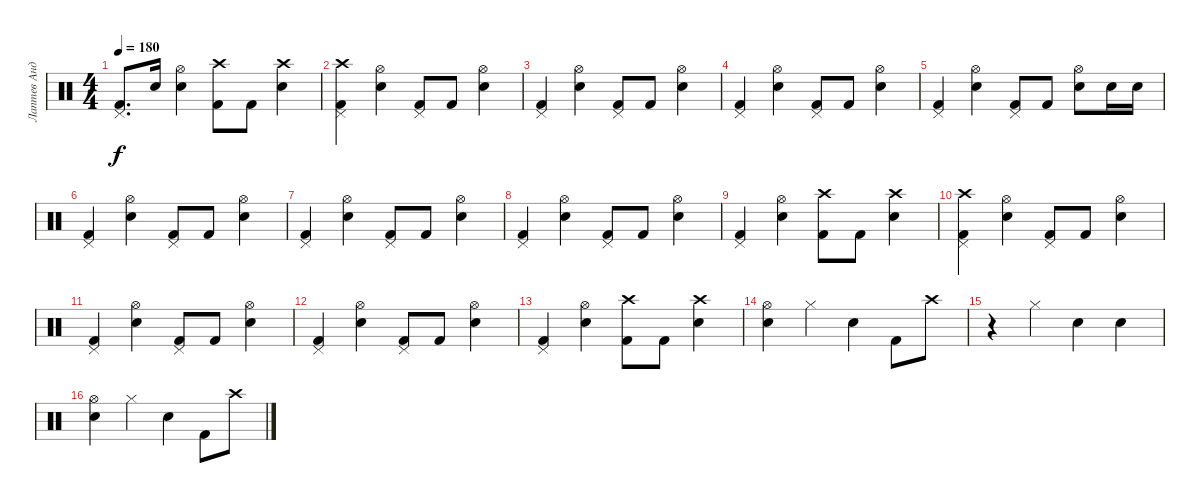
\track ("Лаптев Андрей" "Лаптев Анд") {instrument percussion}
\staff {score}
\articulation defaults
\ts (4 4)
\tempo 180
\clef neutral
\ks c
("Kick (hit) 2" "Pedal Hi-Hat (hit)").8{d dy f} "Snare (hit) 2".16 ("Snare (hit) 2" "Hi-Hat (open)").4 ("Kick (hit) 2" "Crash high (hit)").8 "Kick (hit) 2".8 ("Snare (hit) 2" "Crash high (hit)").4 |
("Kick (hit) 2" "Crash high (hit)" "Pedal Hi-Hat (hit)").4 ("Snare (hit) 2" "Hi-Hat (open)").4 ("Kick (hit) 2" "Pedal Hi-Hat (hit)").8 "Kick (hit) 2".8 ("Snare (hit) 2" "Hi-Hat (open)").4 |
("Kick (hit) 2" "Pedal Hi-Hat (hit)").4 ("Snare (hit) 2" "Hi-Hat (open)").4 ("Kick (hit) 2" "Pedal Hi-Hat (hit)").8 "Kick (hit) 2".8 ("Snare (hit) 2" "Hi-Hat (open)").4 |
("Kick (hit) 2" "Pedal Hi-Hat (hit)").4 ("Snare (hit) 2" "Hi-Hat (open)").4 ("Kick (hit) 2" "Pedal Hi-Hat (hit)").8 "Kick (hit) 2".8 ("Snare (hit) 2" "Hi-Hat (open)").4 |
("Kick (hit) 2" "Pedal Hi-Hat (hit)").4 ("Snare (hit) 2" "Hi-Hat (open)").4 ("Kick (hit) 2" "Pedal Hi-Hat (hit)").8 "Kick (hit) 2".8 ("Snare (hit) 2" "Hi-Hat (open)").8 "Snare (hit) 2".16 "Snare (hit) 2".16 |
("Kick (hit) 2" "Pedal Hi-Hat (hit)").4 ("Snare (hit) 2" "Hi-Hat (open)").4 ("Kick (hit) 2" "Pedal Hi-Hat (hit)").8 "Kick (hit) 2".8 ("Snare (hit) 2" "Hi-Hat (open)").4 |
("Kick (hit) 2" "Pedal Hi-Hat (hit)").4 ("Snare (hit) 2" "Hi-Hat (open)").4 ("Kick (hit) 2" "Pedal Hi-Hat (hit)").8 "Kick (hit) 2".8 ("Snare (hit) 2" "Hi-Hat (open)").4 |
("Kick (hit) 2" "Pedal Hi-Hat (hit)").4 ("Snare (hit) 2" "Hi-Hat (open)").4 ("Kick (hit) 2" "Pedal Hi-Hat (hit)").8 "Kick (hit) 2".8 ("Snare (hit) 2" "Hi-Hat (open)").4 |
("Kick (hit) 2" "Pedal Hi-Hat (hit)").4 ("Snare (hit) 2" "Hi-Hat (open)").4 ("Kick (hit) 2" "Crash high (hit)").8 "Kick (hit) 2".8 ("Snare (hit) 2" "Crash high (hit)").4 |
("Kick (hit) 2" "Crash high (hit)" "Pedal Hi-Hat (hit)").4 ("Snare (hit) 2" "Hi-Hat (open)").4 ("Kick (hit) 2" "Pedal Hi-Hat (hit)").8 "Kick (hit) 2".8 ("Snare (hit) 2" "Hi-Hat (open)").4 |
("Kick (hit) 2" "Pedal Hi-Hat (hit)").4 ("Snare (hit) 2" "Hi-Hat (open)").4 ("Kick (hit) 2" "Pedal Hi-Hat (hit)").8 "Kick (hit) 2".8 ("Snare (hit) 2" "Hi-Hat (open)").4 |
("Kick (hit) 2" "Pedal Hi-Hat (hit)").4 ("Snare (hit) 2" "Hi-Hat (open)").4 ("Kick (hit) 2" "Pedal Hi-Hat (hit)").8 "Kick (hit) 2".8 ("Snare (hit) 2" "Hi-Hat (open)").4 |
("Kick (hit) 2" "Pedal Hi-Hat (hit)").4 ("Snare (hit) 2" "Hi-Hat (open)").4 ("Kick (hit) 2" "Crash high (hit)").8 "Kick (hit) 2".8 ("Snare (hit) 2" "Crash high (hit)").4 |
("Snare (hit) 2" "Hi-Hat (open)").4 "Hi-Hat (closed)".4 "Snare (hit) 2".4 "Kick (hit) 2".8 "Crash high (hit)".8 |
r.4 "Hi-Hat (closed)".4 "Snare (hit) 2".4 "Snare (hit) 2".4 |
("Snare (hit) 2" "Hi-Hat (open)").4 "Hi-Hat (closed)".4 "Snare (hit) 2".4 "Kick (hit) 2".8 "Crash high (hit)".8
